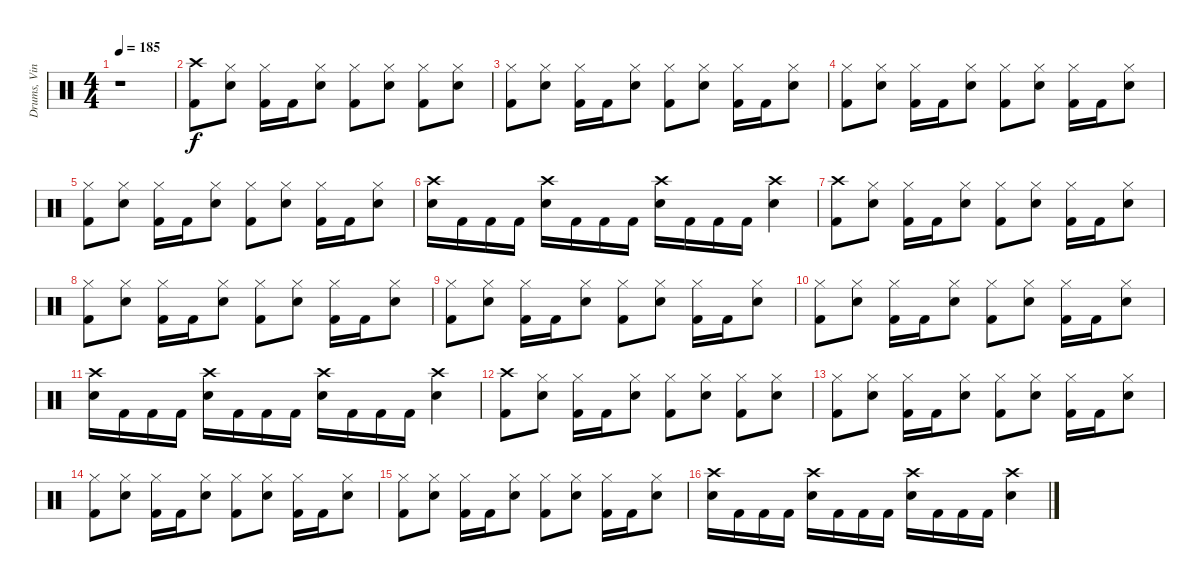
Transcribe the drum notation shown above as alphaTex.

\track ("Drums, Vinnie" "Drums, Vin") {instrument percussion}
\staff {score}
\articulation defaults
\ts (4 4)
\tempo 185
\clef neutral
\ks c
r.1{dy f} |
("Crash high (hit)" "Kick (hit) 2").8 ("Hi-Hat (closed)" "Electric Snare (hit)").8 ("Hi-Hat (closed)" "Kick (hit) 2").16 "Kick (hit) 2".16 ("Hi-Hat (closed)" "Electric Snare (hit)").8 ("Hi-Hat (closed)" "Kick (hit) 2").8 ("Hi-Hat (closed)" "Electric Snare (hit)").8 ("Hi-Hat (closed)" "Kick (hit) 2").8 ("Hi-Hat (closed)" "Electric Snare (hit)").8 |
("Hi-Hat (closed)" "Kick (hit) 2").8 ("Hi-Hat (closed)" "Electric Snare (hit)").8 ("Hi-Hat (closed)" "Kick (hit) 2").16 "Kick (hit) 2".16 ("Hi-Hat (closed)" "Electric Snare (hit)").8 ("Hi-Hat (closed)" "Kick (hit) 2").8 ("Hi-Hat (closed)" "Electric Snare (hit)").8 ("Hi-Hat (closed)" "Kick (hit) 2").16 "Kick (hit) 2".16 ("Hi-Hat (closed)" "Electric Snare (hit)").8 |
("Hi-Hat (closed)" "Kick (hit) 2").8 ("Hi-Hat (closed)" "Electric Snare (hit)").8 ("Hi-Hat (closed)" "Kick (hit) 2").16 "Kick (hit) 2".16 ("Hi-Hat (closed)" "Electric Snare (hit)").8 ("Hi-Hat (closed)" "Kick (hit) 2").8 ("Hi-Hat (closed)" "Electric Snare (hit)").8 ("Hi-Hat (closed)" "Kick (hit) 2").16 "Kick (hit) 2".16 ("Hi-Hat (closed)" "Electric Snare (hit)").8 |
("Hi-Hat (closed)" "Kick (hit) 2").8 ("Hi-Hat (closed)" "Electric Snare (hit)").8 ("Hi-Hat (closed)" "Kick (hit) 2").16 "Kick (hit) 2".16 ("Hi-Hat (closed)" "Electric Snare (hit)").8 ("Hi-Hat (closed)" "Kick (hit) 2").8 ("Hi-Hat (closed)" "Electric Snare (hit)").8 ("Hi-Hat (closed)" "Kick (hit) 2").16 "Kick (hit) 2".16 ("Hi-Hat (closed)" "Electric Snare (hit)").8 |
("Crash high (hit)" "Electric Snare (hit)").16 "Kick (hit) 2".16 "Kick (hit) 2".16 "Kick (hit) 2".16 ("Crash high (hit)" "Electric Snare (hit)").16 "Kick (hit) 2".16 "Kick (hit) 2".16 "Kick (hit) 2".16 ("Crash high (hit)" "Electric Snare (hit)").16 "Kick (hit) 2".16 "Kick (hit) 2".16 "Kick (hit) 2".16 ("Crash high (hit)" "Electric Snare (hit)").4 |
("Crash high (hit)" "Kick (hit) 2").8 ("Hi-Hat (closed)" "Electric Snare (hit)").8 ("Hi-Hat (closed)" "Kick (hit) 2").16 "Kick (hit) 2".16 ("Hi-Hat (closed)" "Electric Snare (hit)").8 ("Hi-Hat (closed)" "Kick (hit) 2").8 ("Hi-Hat (closed)" "Electric Snare (hit)").8 ("Hi-Hat (closed)" "Kick (hit) 2").16 "Kick (hit) 2".16 ("Hi-Hat (closed)" "Electric Snare (hit)").8 |
("Hi-Hat (closed)" "Kick (hit) 2").8 ("Hi-Hat (closed)" "Electric Snare (hit)").8 ("Hi-Hat (closed)" "Kick (hit) 2").16 "Kick (hit) 2".16 ("Hi-Hat (closed)" "Electric Snare (hit)").8 ("Hi-Hat (closed)" "Kick (hit) 2").8 ("Hi-Hat (closed)" "Electric Snare (hit)").8 ("Hi-Hat (closed)" "Kick (hit) 2").16 "Kick (hit) 2".16 ("Hi-Hat (closed)" "Electric Snare (hit)").8 |
("Hi-Hat (closed)" "Kick (hit) 2").8 ("Hi-Hat (closed)" "Electric Snare (hit)").8 ("Hi-Hat (closed)" "Kick (hit) 2").16 "Kick (hit) 2".16 ("Hi-Hat (closed)" "Electric Snare (hit)").8 ("Hi-Hat (closed)" "Kick (hit) 2").8 ("Hi-Hat (closed)" "Electric Snare (hit)").8 ("Hi-Hat (closed)" "Kick (hit) 2").16 "Kick (hit) 2".16 ("Hi-Hat (closed)" "Electric Snare (hit)").8 |
("Hi-Hat (closed)" "Kick (hit) 2").8 ("Hi-Hat (closed)" "Electric Snare (hit)").8 ("Hi-Hat (closed)" "Kick (hit) 2").16 "Kick (hit) 2".16 ("Hi-Hat (closed)" "Electric Snare (hit)").8 ("Hi-Hat (closed)" "Kick (hit) 2").8 ("Hi-Hat (closed)" "Electric Snare (hit)").8 ("Hi-Hat (closed)" "Kick (hit) 2").16 "Kick (hit) 2".16 ("Hi-Hat (closed)" "Electric Snare (hit)").8 |
("Crash high (hit)" "Electric Snare (hit)").16 "Kick (hit) 2".16 "Kick (hit) 2".16 "Kick (hit) 2".16 ("Crash high (hit)" "Electric Snare (hit)").16 "Kick (hit) 2".16 "Kick (hit) 2".16 "Kick (hit) 2".16 ("Crash high (hit)" "Electric Snare (hit)").16 "Kick (hit) 2".16 "Kick (hit) 2".16 "Kick (hit) 2".16 ("Crash high (hit)" "Electric Snare (hit)").4 |
("Crash high (hit)" "Kick (hit) 2").8 ("Hi-Hat (closed)" "Electric Snare (hit)").8 ("Hi-Hat (closed)" "Kick (hit) 2").16 "Kick (hit) 2".16 ("Hi-Hat (closed)" "Electric Snare (hit)").8 ("Hi-Hat (closed)" "Kick (hit) 2").8 ("Hi-Hat (closed)" "Electric Snare (hit)").8 ("Hi-Hat (closed)" "Kick (hit) 2").8 ("Hi-Hat (closed)" "Electric Snare (hit)").8 |
("Hi-Hat (closed)" "Kick (hit) 2").8 ("Hi-Hat (closed)" "Electric Snare (hit)").8 ("Hi-Hat (closed)" "Kick (hit) 2").16 "Kick (hit) 2".16 ("Hi-Hat (closed)" "Electric Snare (hit)").8 ("Hi-Hat (closed)" "Kick (hit) 2").8 ("Hi-Hat (closed)" "Electric Snare (hit)").8 ("Hi-Hat (closed)" "Kick (hit) 2").16 "Kick (hit) 2".16 ("Hi-Hat (closed)" "Electric Snare (hit)").8 |
("Hi-Hat (closed)" "Kick (hit) 2").8 ("Hi-Hat (closed)" "Electric Snare (hit)").8 ("Hi-Hat (closed)" "Kick (hit) 2").16 "Kick (hit) 2".16 ("Hi-Hat (closed)" "Electric Snare (hit)").8 ("Hi-Hat (closed)" "Kick (hit) 2").8 ("Hi-Hat (closed)" "Electric Snare (hit)").8 ("Hi-Hat (closed)" "Kick (hit) 2").16 "Kick (hit) 2".16 ("Hi-Hat (closed)" "Electric Snare (hit)").8 |
("Hi-Hat (closed)" "Kick (hit) 2").8 ("Hi-Hat (closed)" "Electric Snare (hit)").8 ("Hi-Hat (closed)" "Kick (hit) 2").16 "Kick (hit) 2".16 ("Hi-Hat (closed)" "Electric Snare (hit)").8 ("Hi-Hat (closed)" "Kick (hit) 2").8 ("Hi-Hat (closed)" "Electric Snare (hit)").8 ("Hi-Hat (closed)" "Kick (hit) 2").16 "Kick (hit) 2".16 ("Hi-Hat (closed)" "Electric Snare (hit)").8 |
("Crash high (hit)" "Electric Snare (hit)").16 "Kick (hit) 2".16 "Kick (hit) 2".16 "Kick (hit) 2".16 ("Crash high (hit)" "Electric Snare (hit)").16 "Kick (hit) 2".16 "Kick (hit) 2".16 "Kick (hit) 2".16 ("Crash high (hit)" "Electric Snare (hit)").16 "Kick (hit) 2".16 "Kick (hit) 2".16 "Kick (hit) 2".16 ("Crash high (hit)" "Electric Snare (hit)").4
